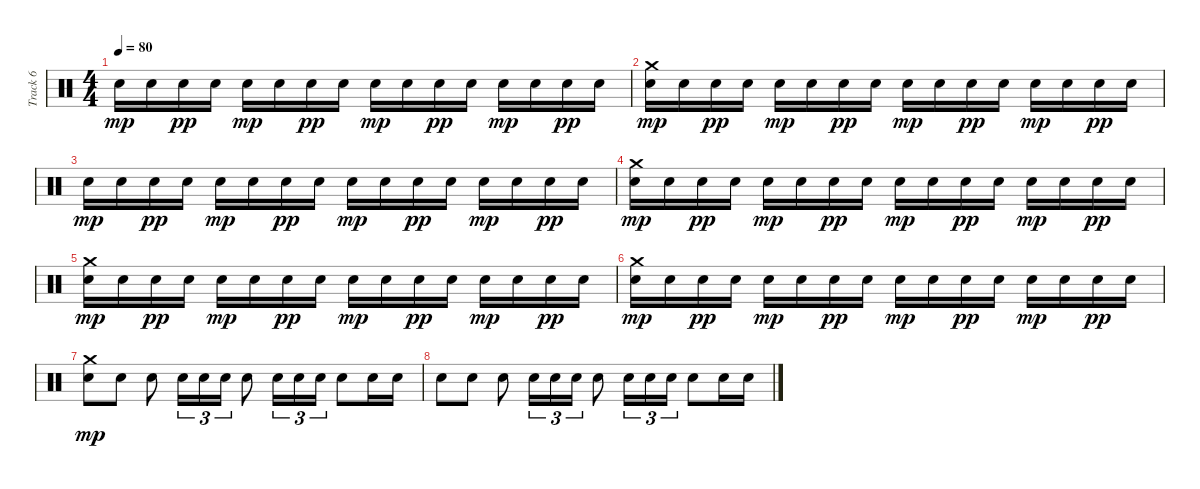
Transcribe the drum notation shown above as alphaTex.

\track ("Track 6" "Track 6") {instrument percussion}
\staff {score}
\articulation defaults
\ts (4 4)
\tempo 80
\clef neutral
\ks c "Electric Snare (hit)".16{dy mp} "Electric Snare (hit)".16 "Electric Snare (hit)".16{dy pp} "Electric Snare (hit)".16 "Electric Snare (hit)".16{dy mp} "Electric Snare (hit)".16 "Electric Snare (hit)".16{dy pp} "Electric Snare (hit)".16 "Electric Snare (hit)".16{dy mp} "Electric Snare (hit)".16 "Electric Snare (hit)".16{dy pp} "Electric Snare (hit)".16 "Electric Snare (hit)".16{dy mp} "Electric Snare (hit)".16 "Electric Snare (hit)".16{dy pp} "Electric Snare (hit)".16
|
("Electric Snare (hit)" "Crash medium (hit)").16{dy mp} "Electric Snare (hit)".16 "Electric Snare (hit)".16{dy pp} "Electric Snare (hit)".16 "Electric Snare (hit)".16{dy mp} "Electric Snare (hit)".16 "Electric Snare (hit)".16{dy pp} "Electric Snare (hit)".16 "Electric Snare (hit)".16{dy mp} "Electric Snare (hit)".16 "Electric Snare (hit)".16{dy pp} "Electric Snare (hit)".16 "Electric Snare (hit)".16{dy mp} "Electric Snare (hit)".16 "Electric Snare (hit)".16{dy pp} "Electric Snare (hit)".16 |
"Electric Snare (hit)".16{dy mp} "Electric Snare (hit)".16 "Electric Snare (hit)".16{dy pp} "Electric Snare (hit)".16 "Electric Snare (hit)".16{dy mp} "Electric Snare (hit)".16 "Electric Snare (hit)".16{dy pp} "Electric Snare (hit)".16 "Electric Snare (hit)".16{dy mp} "Electric Snare (hit)".16 "Electric Snare (hit)".16{dy pp} "Electric Snare (hit)".16 "Electric Snare (hit)".16{dy mp} "Electric Snare (hit)".16 "Electric Snare (hit)".16{dy pp} "Electric Snare (hit)".16 |
("Electric Snare (hit)" "Crash medium (hit)").16{dy mp} "Electric Snare (hit)".16 "Electric Snare (hit)".16{dy pp} "Electric Snare (hit)".16 "Electric Snare (hit)".16{dy mp} "Electric Snare (hit)".16 "Electric Snare (hit)".16{dy pp} "Electric Snare (hit)".16 "Electric Snare (hit)".16{dy mp} "Electric Snare (hit)".16 "Electric Snare (hit)".16{dy pp} "Electric Snare (hit)".16 "Electric Snare (hit)".16{dy mp} "Electric Snare (hit)".16 "Electric Snare (hit)".16{dy pp} "Electric Snare (hit)".16 |
("Electric Snare (hit)" "Crash medium (hit)").16{dy mp} "Electric Snare (hit)".16 "Electric Snare (hit)".16{dy pp} "Electric Snare (hit)".16 "Electric Snare (hit)".16{dy mp} "Electric Snare (hit)".16 "Electric Snare (hit)".16{dy pp} "Electric Snare (hit)".16 "Electric Snare (hit)".16{dy mp} "Electric Snare (hit)".16 "Electric Snare (hit)".16{dy pp} "Electric Snare (hit)".16 "Electric Snare (hit)".16{dy mp} "Electric Snare (hit)".16 "Electric Snare (hit)".16{dy pp} "Electric Snare (hit)".16 |
("Electric Snare (hit)" "Crash medium (hit)").16{dy mp} "Electric Snare (hit)".16 "Electric Snare (hit)".16{dy pp} "Electric Snare (hit)".16 "Electric Snare (hit)".16{dy mp} "Electric Snare (hit)".16 "Electric Snare (hit)".16{dy pp} "Electric Snare (hit)".16 "Electric Snare (hit)".16{dy mp} "Electric Snare (hit)".16 "Electric Snare (hit)".16{dy pp} "Electric Snare (hit)".16 "Electric Snare (hit)".16{dy mp} "Electric Snare (hit)".16 "Electric Snare (hit)".16{dy pp} "Electric Snare (hit)".16 |
("Electric Snare (hit)" "Crash medium (hit)").8{dy mp} "Electric Snare (hit)".8 "Electric Snare (hit)".8 "Electric Snare (hit)".16{tu (3 2)} "Electric Snare (hit)".16{tu (3 2)} "Electric Snare (hit)".16{tu (3 2)} "Electric Snare (hit)".8 "Electric Snare (hit)".16{tu (3 2)} "Electric Snare (hit)".16{tu (3 2)} "Electric Snare (hit)".16{tu (3 2)} "Electric Snare (hit)".8 "Electric Snare (hit)".16 "Electric Snare (hit)".16 |
"Electric Snare (hit)".8 "Electric Snare (hit)".8 "Electric Snare (hit)".8 "Electric Snare (hit)".16{tu (3 2)} "Electric Snare (hit)".16{tu (3 2)} "Electric Snare (hit)".16{tu (3 2)} "Electric Snare (hit)".8 "Electric Snare (hit)".16{tu (3 2)} "Electric Snare (hit)".16{tu (3 2)} "Electric Snare (hit)".16{tu (3 2)} "Electric Snare (hit)".8 "Electric Snare (hit)".16 "Electric Snare (hit)".16
